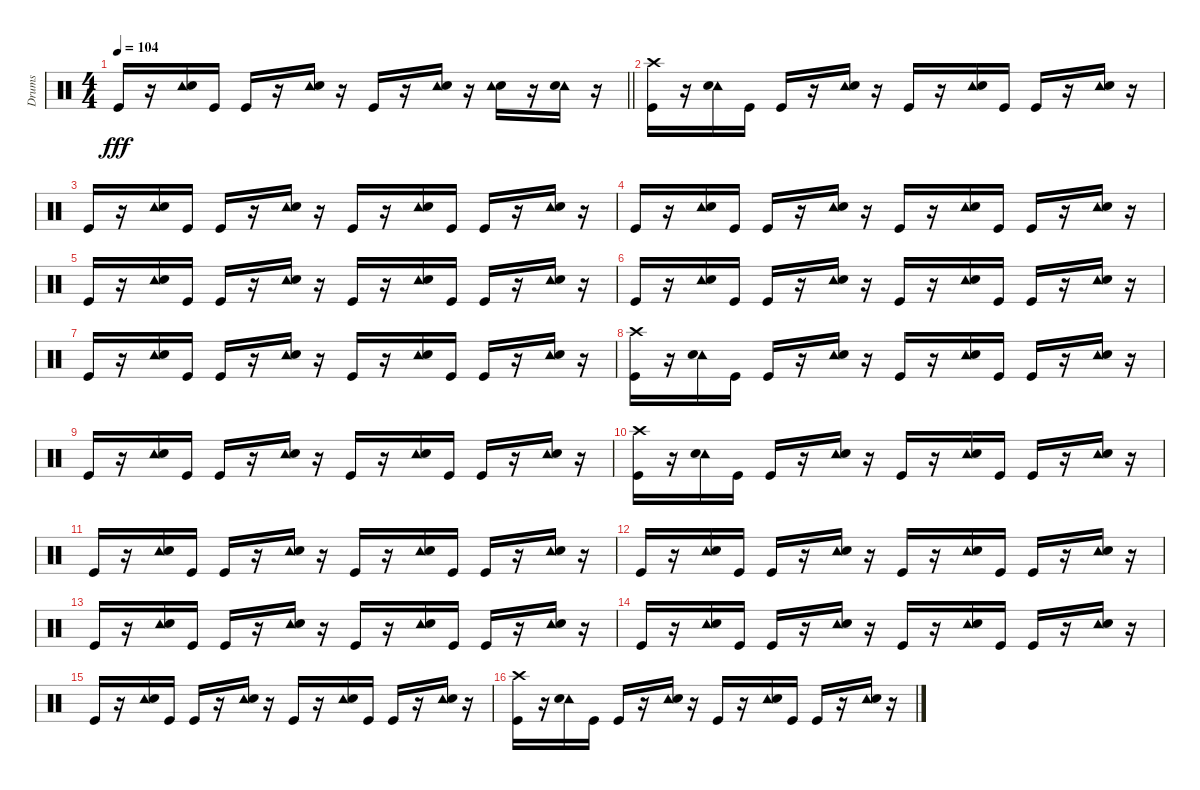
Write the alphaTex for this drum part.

\track ("Drums" "Drums") {instrument percussion}
\staff {score}
\articulation defaults
\ts (4 4)
\tempo 104
\clef neutral
\barLineRight lightlight
\ks c "Kick (hit)".16{dy fff}
r.16 ("Tambourine (hit)" "Electric Snare (hit)").16 "Kick (hit)".16 "Kick (hit)".16 r.16 ("Tambourine (hit)" "Electric Snare (hit)").16 r.16 "Kick (hit)".16 r.16 ("Tambourine (hit)" "Electric Snare (hit)").16 r.16 ("Electric Snare (hit)" "Tambourine (hit)").16 r.16 ("Tambourine (hit)" "Electric Snare (hit)").16 r.16 |
("Kick (hit)" "Crash high (hit)").16 r.16 ("Tambourine (hit)" "Electric Snare (hit)").16 "Kick (hit)".16 "Kick (hit)".16 r.16 ("Tambourine (hit)" "Electric Snare (hit)").16 r.16 "Kick (hit)".16 r.16 ("Tambourine (hit)" "Electric Snare (hit)").16 "Kick (hit)".16 "Kick (hit)".16 r.16 ("Tambourine (hit)" "Electric Snare (hit)").16 r.16 |
"Kick (hit)".16 r.16 ("Tambourine (hit)" "Electric Snare (hit)").16 "Kick (hit)".16 "Kick (hit)".16 r.16 ("Tambourine (hit)" "Electric Snare (hit)").16 r.16 "Kick (hit)".16 r.16 ("Tambourine (hit)" "Electric Snare (hit)").16 "Kick (hit)".16 "Kick (hit)".16 r.16 ("Tambourine (hit)" "Electric Snare (hit)").16 r.16 |
"Kick (hit)".16 r.16 ("Tambourine (hit)" "Electric Snare (hit)").16 "Kick (hit)".16 "Kick (hit)".16 r.16 ("Tambourine (hit)" "Electric Snare (hit)").16 r.16 "Kick (hit)".16 r.16 ("Tambourine (hit)" "Electric Snare (hit)").16 "Kick (hit)".16 "Kick (hit)".16 r.16 ("Tambourine (hit)" "Electric Snare (hit)").16 r.16 |
"Kick (hit)".16 r.16 ("Tambourine (hit)" "Electric Snare (hit)").16 "Kick (hit)".16 "Kick (hit)".16 r.16 ("Tambourine (hit)" "Electric Snare (hit)").16 r.16 "Kick (hit)".16 r.16 ("Tambourine (hit)" "Electric Snare (hit)").16 "Kick (hit)".16 "Kick (hit)".16 r.16 ("Tambourine (hit)" "Electric Snare (hit)").16 r.16 |
"Kick (hit)".16 r.16 ("Tambourine (hit)" "Electric Snare (hit)").16 "Kick (hit)".16 "Kick (hit)".16 r.16 ("Tambourine (hit)" "Electric Snare (hit)").16 r.16 "Kick (hit)".16 r.16 ("Tambourine (hit)" "Electric Snare (hit)").16 "Kick (hit)".16 "Kick (hit)".16 r.16 ("Tambourine (hit)" "Electric Snare (hit)").16 r.16 |
"Kick (hit)".16 r.16 ("Tambourine (hit)" "Electric Snare (hit)").16 "Kick (hit)".16 "Kick (hit)".16 r.16 ("Tambourine (hit)" "Electric Snare (hit)").16 r.16 "Kick (hit)".16 r.16 ("Tambourine (hit)" "Electric Snare (hit)").16 "Kick (hit)".16 "Kick (hit)".16 r.16 ("Tambourine (hit)" "Electric Snare (hit)").16 r.16 |
("Kick (hit)" "Crash high (hit)").16 r.16 ("Tambourine (hit)" "Electric Snare (hit)").16 "Kick (hit)".16 "Kick (hit)".16 r.16 ("Tambourine (hit)" "Electric Snare (hit)").16 r.16 "Kick (hit)".16 r.16 ("Tambourine (hit)" "Electric Snare (hit)").16 "Kick (hit)".16 "Kick (hit)".16 r.16 ("Tambourine (hit)" "Electric Snare (hit)").16 r.16 |
"Kick (hit)".16 r.16 ("Tambourine (hit)" "Electric Snare (hit)").16 "Kick (hit)".16 "Kick (hit)".16 r.16 ("Tambourine (hit)" "Electric Snare (hit)").16 r.16 "Kick (hit)".16 r.16 ("Tambourine (hit)" "Electric Snare (hit)").16 "Kick (hit)".16 "Kick (hit)".16 r.16 ("Tambourine (hit)" "Electric Snare (hit)").16 r.16 |
("Kick (hit)" "Crash high (hit)").16 r.16 ("Tambourine (hit)" "Electric Snare (hit)").16 "Kick (hit)".16 "Kick (hit)".16 r.16 ("Tambourine (hit)" "Electric Snare (hit)").16 r.16 "Kick (hit)".16 r.16 ("Tambourine (hit)" "Electric Snare (hit)").16 "Kick (hit)".16 "Kick (hit)".16 r.16 ("Tambourine (hit)" "Electric Snare (hit)").16 r.16 |
"Kick (hit)".16 r.16 ("Tambourine (hit)" "Electric Snare (hit)").16 "Kick (hit)".16 "Kick (hit)".16 r.16 ("Tambourine (hit)" "Electric Snare (hit)").16 r.16 "Kick (hit)".16 r.16 ("Tambourine (hit)" "Electric Snare (hit)").16 "Kick (hit)".16 "Kick (hit)".16 r.16 ("Tambourine (hit)" "Electric Snare (hit)").16 r.16 |
"Kick (hit)".16 r.16 ("Tambourine (hit)" "Electric Snare (hit)").16 "Kick (hit)".16 "Kick (hit)".16 r.16 ("Tambourine (hit)" "Electric Snare (hit)").16 r.16 "Kick (hit)".16 r.16 ("Tambourine (hit)" "Electric Snare (hit)").16 "Kick (hit)".16 "Kick (hit)".16 r.16 ("Tambourine (hit)" "Electric Snare (hit)").16 r.16 |
"Kick (hit)".16 r.16 ("Tambourine (hit)" "Electric Snare (hit)").16 "Kick (hit)".16 "Kick (hit)".16 r.16 ("Tambourine (hit)" "Electric Snare (hit)").16 r.16 "Kick (hit)".16 r.16 ("Tambourine (hit)" "Electric Snare (hit)").16 "Kick (hit)".16 "Kick (hit)".16 r.16 ("Tambourine (hit)" "Electric Snare (hit)").16 r.16 |
"Kick (hit)".16 r.16 ("Tambourine (hit)" "Electric Snare (hit)").16 "Kick (hit)".16 "Kick (hit)".16 r.16 ("Tambourine (hit)" "Electric Snare (hit)").16 r.16 "Kick (hit)".16 r.16 ("Tambourine (hit)" "Electric Snare (hit)").16 "Kick (hit)".16 "Kick (hit)".16 r.16 ("Tambourine (hit)" "Electric Snare (hit)").16 r.16 |
"Kick (hit)".16 r.16 ("Tambourine (hit)" "Electric Snare (hit)").16 "Kick (hit)".16 "Kick (hit)".16 r.16 ("Tambourine (hit)" "Electric Snare (hit)").16 r.16 "Kick (hit)".16 r.16 ("Tambourine (hit)" "Electric Snare (hit)").16 "Kick (hit)".16 "Kick (hit)".16 r.16 ("Tambourine (hit)" "Electric Snare (hit)").16 r.16 |
("Kick (hit)" "Crash high (hit)").16 r.16 ("Tambourine (hit)" "Electric Snare (hit)").16 "Kick (hit)".16 "Kick (hit)".16 r.16 ("Tambourine (hit)" "Electric Snare (hit)").16 r.16 "Kick (hit)".16 r.16 ("Tambourine (hit)" "Electric Snare (hit)").16 "Kick (hit)".16 "Kick (hit)".16 r.16 ("Tambourine (hit)" "Electric Snare (hit)").16 r.16
